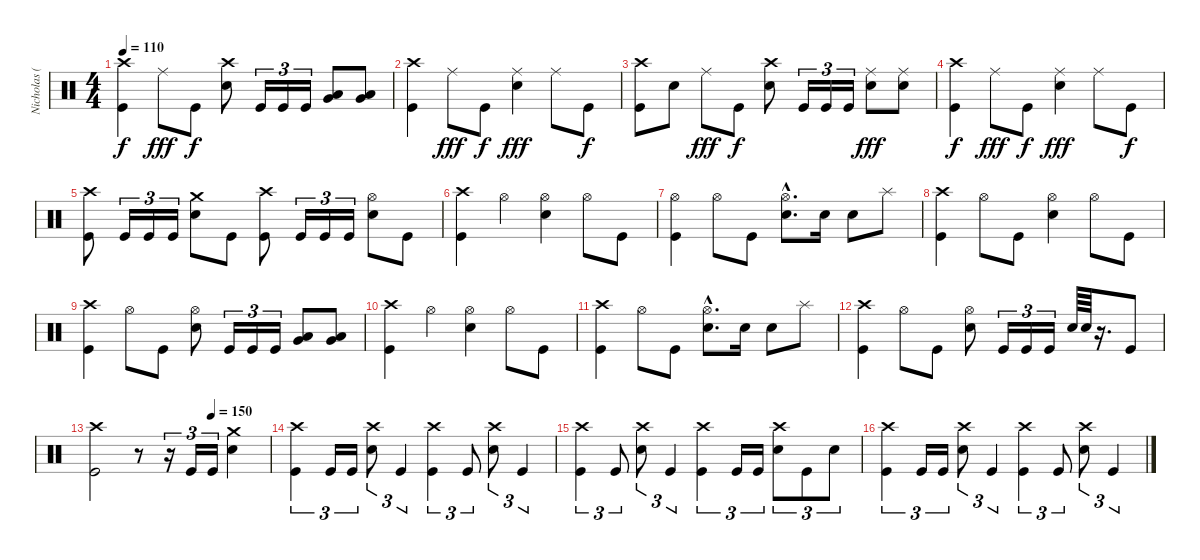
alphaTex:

\track ("Nicholas (Drums)" "Nicholas (") {instrument percussion}
\staff {score}
\articulation defaults
\ts (4 4)
\tempo 110
\clef neutral
\ks c
("Crash high (hit)" "Kick (hit)").4{dy f} "Ride (middle)".8{dy fff} "Kick (hit)".8{dy f} ("Crash high (hit)" "Electric Snare (hit)").8 "Kick (hit)".16{tu (3 2)} "Kick (hit)".16{tu (3 2)} "Kick (hit)".16{tu (3 2)} ("Low Tom (hit)" "Very Low Tom (hit)").8{bd 60} ("Low Tom (hit)" "Very Low Tom (hit)").8{bd 60} |
("Crash high (hit)" "Kick (hit)").4 "Ride (middle)".8{dy fff} "Kick (hit)".8{dy f} ("Ride (middle)" "Electric Snare (hit)").4{dy fff} "Ride (middle)".8 "Kick (hit)".8{dy f} |
("Crash high (hit)" "Kick (hit)").8 "Electric Snare (hit)".8 "Ride (middle)".8{dy fff} "Kick (hit)".8{dy f} ("Crash high (hit)" "Electric Snare (hit)").8 "Kick (hit)".16{tu (3 2)} "Kick (hit)".16{tu (3 2)} "Kick (hit)".16{tu (3 2)} ("Ride (middle)" "Electric Snare (hit)").8{dy fff} ("Ride (middle)" "Electric Snare (hit)").8 |
("Crash high (hit)" "Kick (hit)").4{dy f} "Ride (middle)".8{dy fff} "Kick (hit)".8{dy f} ("Ride (middle)" "Electric Snare (hit)").4{dy fff} "Ride (middle)".8 "Kick (hit)".8{dy f} |
("Crash high (hit)" "Kick (hit)").8 "Kick (hit)".16{tu (3 2)} "Kick (hit)".16{tu (3 2)} "Kick (hit)".16{tu (3 2)} ("Crash medium (hit)" "Electric Snare (hit)").8 "Kick (hit)".8 ("Crash high (hit)" "Kick (hit)").8 "Kick (hit)".16{tu (3 2)} "Kick (hit)".16{tu (3 2)} "Kick (hit)".16{tu (3 2)} ("Hi-Hat (open)" "Electric Snare (hit)").8 "Kick (hit)".8 |
("Crash high (hit)" "Kick (hit)").4 "Hi-Hat (open)".4 ("Hi-Hat (open)" "Electric Snare (hit)").4 "Hi-Hat (open)".8 "Kick (hit)".8 |
("Hi-Hat (open)" "Kick (hit)").4 "Hi-Hat (open)".8 "Kick (hit)".8 ("Hi-Hat (open)"{hac} "Electric Snare (hit)"{hac}).8{d} "Electric Snare (hit)".16 "Electric Snare (hit)".8 "Splash (hit)".8 |
("Crash high (hit)" "Kick (hit)").4 "Hi-Hat (open)".8 "Kick (hit)".8 ("Hi-Hat (open)" "Electric Snare (hit)").4 "Hi-Hat (open)".8 "Kick (hit)".8 |
("Crash high (hit)" "Kick (hit)").4 "Hi-Hat (open)".8 "Kick (hit)".8 ("Hi-Hat (open)" "Electric Snare (hit)").8 "Kick (hit)".16{tu (3 2)} "Kick (hit)".16{tu (3 2)} "Kick (hit)".16{tu (3 2)} ("Low Tom (hit)" "Very Low Tom (hit)").8{bd 60} ("Low Tom (hit)" "Very Low Tom (hit)").8{bd 60} |
("Crash high (hit)" "Kick (hit)").4 "Hi-Hat (open)".4 ("Hi-Hat (open)" "Electric Snare (hit)").4 "Hi-Hat (open)".8 "Kick (hit)".8 |
("Crash high (hit)" "Kick (hit)").4 "Hi-Hat (open)".8 "Kick (hit)".8 ("Hi-Hat (open)"{hac} "Electric Snare (hit)"{hac}).8{d} "Electric Snare (hit)".16 "Electric Snare (hit)".8 "Splash (hit)".8 |
("Crash high (hit)" "Kick (hit)").4 "Hi-Hat (open)".8 "Kick (hit)".8 ("Hi-Hat (open)" "Electric Snare (hit)").8 "Kick (hit)".16{tu (3 2)} "Kick (hit)".16{tu (3 2)} "Kick (hit)".16{tu (3 2)} "Electric Snare (hit)".64 "Electric Snare (hit)".64 r.16{d} "Kick (hit)".8 |
\tempo (150 0.6666666666666666)
("Crash high (hit)" "Kick (hit)").2 r.8 r.16{tu (3 2)} "Kick (hit)".16{tu (3 2)} "Kick (hit)".16{tu (3 2)} ("Crash medium (hit)" "Electric Snare (hit)").4 |
("Crash high (hit)" "Kick (hit)").4{tu (3 2)} "Kick (hit)".16{tu (3 2)} "Kick (hit)".16{tu (3 2)} ("Crash high (hit)" "Electric Snare (hit)").8{tu (3 2)} "Kick (hit)".4{tu (3 2)} ("Crash high (hit)" "Kick (hit)").4{tu (3 2)} "Kick (hit)".8{tu (3 2)} ("Crash high (hit)" "Electric Snare (hit)").8{tu (3 2)} "Kick (hit)".4{tu (3 2)} |
("Crash high (hit)" "Kick (hit)").4{tu (3 2)} "Kick (hit)".8{tu (3 2)} ("Crash high (hit)" "Electric Snare (hit)").8{tu (3 2)} "Kick (hit)".4{tu (3 2)} ("Crash high (hit)" "Kick (hit)").4{tu (3 2)} "Kick (hit)".16{tu (3 2)} "Kick (hit)".16{tu (3 2)} ("Crash high (hit)" "Electric Snare (hit)").8{tu (3 2)} "Kick (hit)".8{tu (3 2)} "Electric Snare (hit)".8{tu (3 2)} |
("Crash high (hit)" "Kick (hit)").4{tu (3 2)} "Kick (hit)".16{tu (3 2)} "Kick (hit)".16{tu (3 2)} ("Crash high (hit)" "Electric Snare (hit)").8{tu (3 2)} "Kick (hit)".4{tu (3 2)} ("Crash high (hit)" "Kick (hit)").4{tu (3 2)} "Kick (hit)".8{tu (3 2)} ("Crash high (hit)" "Electric Snare (hit)").8{tu (3 2)} "Kick (hit)".4{tu (3 2)}
